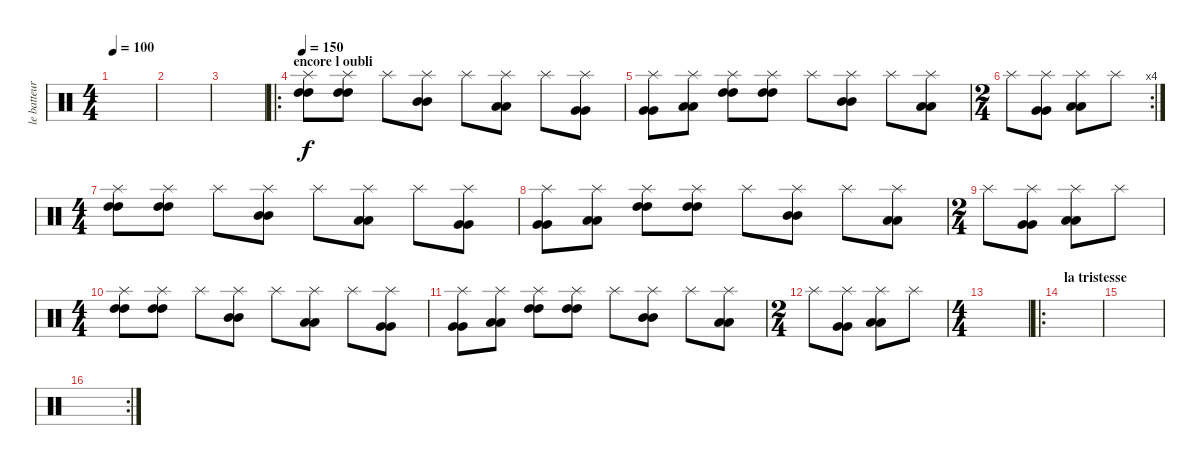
\track ("le batteur" "le batteur") {instrument percussion}
\staff {score}
\articulation defaults
\ts (4 4)
\tempo 100
\clef neutral
\ks c
|
|
|
\ro
\section ("" "encore l oubli")
\tempo 150
("Splash (hit)" "High Tom (hit)" "High Tom (hit)").8 ("Splash (hit)" "High Tom (hit)" "High Tom (hit)").8 "Splash (hit)".8 ("Splash (hit)" "Mid Tom (hit)" "Mid Tom (hit)").8 "Splash (hit)".8 ("Splash (hit)" "Low Tom (hit)" "Low Tom (hit)").8 "Splash (hit)".8 ("Splash (hit)" "Very Low Tom (hit)" "Very Low Tom (hit)").8 |
("Splash (hit)" "Very Low Tom (hit)" "Very Low Tom (hit)"{tr (38 16)}).8 ("Splash (hit)" "Low Tom (hit)" "Low Tom (hit)").8 ("Splash (hit)" "High Tom (hit)" "High Tom (hit)").8 ("Splash (hit)" "High Tom (hit)" "High Tom (hit)").8 "Splash (hit)".8 ("Splash (hit)" "Mid Tom (hit)" "Mid Tom (hit)").8 "Splash (hit)".8 ("Splash (hit)" "Low Tom (hit)" "Low Tom (hit)").8 |
\rc 4
\ts (2 4)
"Splash (hit)".8 ("Splash (hit)" "Very Low Tom (hit)" "Very Low Tom (hit)").8 ("Splash (hit)" "Low Tom (hit)" "Low Tom (hit)").8 "Splash (hit)".8 |
\ts (4 4)
("Splash (hit)" "High Tom (hit)" "High Tom (hit)").8 ("Splash (hit)" "High Tom (hit)" "High Tom (hit)").8 "Splash (hit)".8 ("Splash (hit)" "Mid Tom (hit)" "Mid Tom (hit)").8 "Splash (hit)".8 ("Splash (hit)" "Low Tom (hit)" "Low Tom (hit)").8 "Splash (hit)".8 ("Splash (hit)" "Very Low Tom (hit)" "Very Low Tom (hit)").8 |
("Splash (hit)" "Very Low Tom (hit)" "Very Low Tom (hit)"{tr (38 16)}).8 ("Splash (hit)" "Low Tom (hit)" "Low Tom (hit)").8 ("Splash (hit)" "High Tom (hit)" "High Tom (hit)").8 ("Splash (hit)" "High Tom (hit)" "High Tom (hit)").8 "Splash (hit)".8 ("Splash (hit)" "Mid Tom (hit)" "Mid Tom (hit)").8 "Splash (hit)".8 ("Splash (hit)" "Low Tom (hit)" "Low Tom (hit)").8 |
\ts (2 4)
"Splash (hit)".8 ("Splash (hit)" "Very Low Tom (hit)" "Very Low Tom (hit)").8 ("Splash (hit)" "Low Tom (hit)" "Low Tom (hit)").8 "Splash (hit)".8 |
\ts (4 4)
("Splash (hit)" "High Tom (hit)" "High Tom (hit)").8 ("Splash (hit)" "High Tom (hit)" "High Tom (hit)").8 "Splash (hit)".8 ("Splash (hit)" "Mid Tom (hit)" "Mid Tom (hit)").8 "Splash (hit)".8 ("Splash (hit)" "Low Tom (hit)" "Low Tom (hit)").8 "Splash (hit)".8 ("Splash (hit)" "Very Low Tom (hit)" "Very Low Tom (hit)").8 |
("Splash (hit)" "Very Low Tom (hit)" "Very Low Tom (hit)"{tr (38 16)}).8 ("Splash (hit)" "Low Tom (hit)" "Low Tom (hit)").8 ("Splash (hit)" "High Tom (hit)" "High Tom (hit)").8 ("Splash (hit)" "High Tom (hit)" "High Tom (hit)").8 "Splash (hit)".8 ("Splash (hit)" "Mid Tom (hit)" "Mid Tom (hit)").8 "Splash (hit)".8 ("Splash (hit)" "Low Tom (hit)" "Low Tom (hit)").8 |
\ts (2 4)
"Splash (hit)".8 ("Splash (hit)" "Very Low Tom (hit)" "Very Low Tom (hit)").8 ("Splash (hit)" "Low Tom (hit)" "Low Tom (hit)").8 "Splash (hit)".8 |
\ts (4 4)
|
\ro
\section ("" "la tristesse")
|
|
\rc 2
